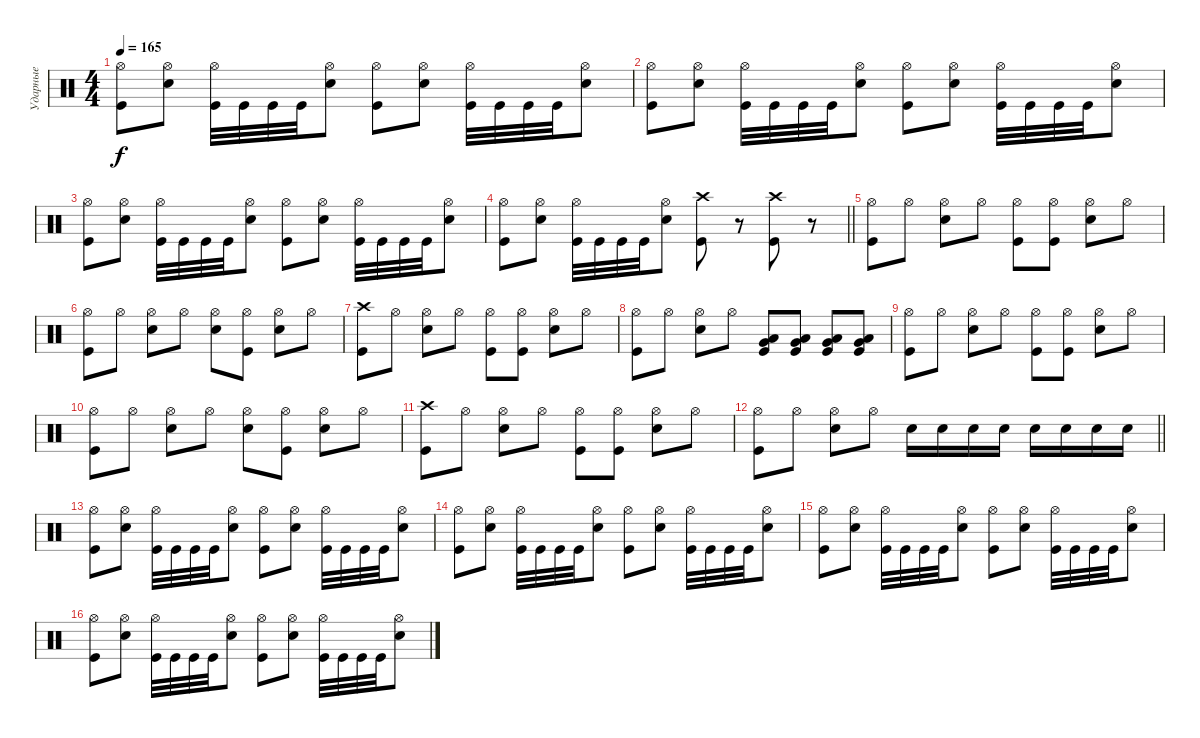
\track ("Ударные" "Ударные") {instrument percussion}
\staff {score}
\articulation defaults
\ts (4 4)
\tempo 165
\clef neutral
\ks c
("Hi-Hat (open)" "Kick (hit)").8{dy f} ("Hi-Hat (open)" "Electric Snare (hit)").8 ("Hi-Hat (open)" "Kick (hit)").32 "Kick (hit)".32 "Kick (hit)".32 "Kick (hit)".32 ("Hi-Hat (open)" "Electric Snare (hit)").8 ("Hi-Hat (open)" "Kick (hit)").8 ("Hi-Hat (open)" "Electric Snare (hit)").8 ("Hi-Hat (open)" "Kick (hit)").32 "Kick (hit)".32 "Kick (hit)".32 "Kick (hit)".32 ("Hi-Hat (open)" "Electric Snare (hit)").8 |
("Hi-Hat (open)" "Kick (hit)").8 ("Hi-Hat (open)" "Electric Snare (hit)").8 ("Hi-Hat (open)" "Kick (hit)").32 "Kick (hit)".32 "Kick (hit)".32 "Kick (hit)".32 ("Hi-Hat (open)" "Electric Snare (hit)").8 ("Hi-Hat (open)" "Kick (hit)").8 ("Hi-Hat (open)" "Electric Snare (hit)").8 ("Hi-Hat (open)" "Kick (hit)").32 "Kick (hit)".32 "Kick (hit)".32 "Kick (hit)".32 ("Hi-Hat (open)" "Electric Snare (hit)").8 |
("Hi-Hat (open)" "Kick (hit)").8 ("Hi-Hat (open)" "Electric Snare (hit)").8 ("Hi-Hat (open)" "Kick (hit)").32 "Kick (hit)".32 "Kick (hit)".32 "Kick (hit)".32 ("Hi-Hat (open)" "Electric Snare (hit)").8 ("Hi-Hat (open)" "Kick (hit)").8 ("Hi-Hat (open)" "Electric Snare (hit)").8 ("Hi-Hat (open)" "Kick (hit)").32 "Kick (hit)".32 "Kick (hit)".32 "Kick (hit)".32 ("Hi-Hat (open)" "Electric Snare (hit)").8 |
\barLineRight lightlight
("Hi-Hat (open)" "Kick (hit)").8 ("Hi-Hat (open)" "Electric Snare (hit)").8 ("Hi-Hat (open)" "Kick (hit)").32 "Kick (hit)".32 "Kick (hit)".32 "Kick (hit)".32 ("Hi-Hat (open)" "Electric Snare (hit)").8 ("Crash high (hit)" "Kick (hit)").8 r.8 ("Crash high (hit)" "Kick (hit)").8 r.8 |
\section ("" "")
("Hi-Hat (open)" "Kick (hit)").8 "Hi-Hat (open)".8 ("Hi-Hat (open)" "Electric Snare (hit)").8 "Hi-Hat (open)".8 ("Hi-Hat (open)" "Kick (hit)").8 ("Hi-Hat (open)" "Kick (hit)").8 ("Hi-Hat (open)" "Electric Snare (hit)").8 "Hi-Hat (open)".8 |
("Hi-Hat (open)" "Kick (hit)").8 "Hi-Hat (open)".8 ("Hi-Hat (open)" "Electric Snare (hit)").8 "Hi-Hat (open)".8 ("Hi-Hat (open)" "Electric Snare (hit)").8 ("Hi-Hat (open)" "Kick (hit)").8 ("Hi-Hat (open)" "Electric Snare (hit)").8 "Hi-Hat (open)".8 |
("Crash high (hit)" "Kick (hit)").8 "Hi-Hat (open)".8 ("Hi-Hat (open)" "Electric Snare (hit)").8 "Hi-Hat (open)".8 ("Hi-Hat (open)" "Kick (hit)").8 ("Hi-Hat (open)" "Kick (hit)").8 ("Hi-Hat (open)" "Electric Snare (hit)").8 "Hi-Hat (open)".8 |
("Hi-Hat (open)" "Kick (hit)").8 "Hi-Hat (open)".8 ("Hi-Hat (open)" "Electric Snare (hit)").8 "Hi-Hat (open)".8 ("Very Low Tom (hit)" "Low Tom (hit)" "Kick (hit)").8 ("Very Low Tom (hit)" "Low Tom (hit)" "Kick (hit)").8 ("Very Low Tom (hit)" "Low Tom (hit)" "Kick (hit)").8 ("Very Low Tom (hit)" "Low Tom (hit)" "Kick (hit)").8 |
("Hi-Hat (open)" "Kick (hit)").8 "Hi-Hat (open)".8 ("Hi-Hat (open)" "Electric Snare (hit)").8 "Hi-Hat (open)".8 ("Hi-Hat (open)" "Kick (hit)").8 ("Hi-Hat (open)" "Kick (hit)").8 ("Hi-Hat (open)" "Electric Snare (hit)").8 "Hi-Hat (open)".8 |
("Hi-Hat (open)" "Kick (hit)").8 "Hi-Hat (open)".8 ("Hi-Hat (open)" "Electric Snare (hit)").8 "Hi-Hat (open)".8 ("Hi-Hat (open)" "Electric Snare (hit)").8 ("Hi-Hat (open)" "Kick (hit)").8 ("Hi-Hat (open)" "Electric Snare (hit)").8 "Hi-Hat (open)".8 |
("Crash high (hit)" "Kick (hit)").8 "Hi-Hat (open)".8 ("Hi-Hat (open)" "Electric Snare (hit)").8 "Hi-Hat (open)".8 ("Hi-Hat (open)" "Kick (hit)").8 ("Hi-Hat (open)" "Kick (hit)").8 ("Hi-Hat (open)" "Electric Snare (hit)").8 "Hi-Hat (open)".8 |
\barLineRight lightlight
("Hi-Hat (open)" "Kick (hit)").8 "Hi-Hat (open)".8 ("Hi-Hat (open)" "Electric Snare (hit)").8 "Hi-Hat (open)".8 "Electric Snare (hit)".16 "Electric Snare (hit)".16 "Electric Snare (hit)".16 "Electric Snare (hit)".16 "Electric Snare (hit)".16 "Electric Snare (hit)".16 "Electric Snare (hit)".16 "Electric Snare (hit)".16 |
\section ("" "")
("Hi-Hat (open)" "Kick (hit)").8 ("Hi-Hat (open)" "Electric Snare (hit)").8 ("Hi-Hat (open)" "Kick (hit)").32 "Kick (hit)".32 "Kick (hit)".32 "Kick (hit)".32 ("Hi-Hat (open)" "Electric Snare (hit)").8 ("Hi-Hat (open)" "Kick (hit)").8 ("Hi-Hat (open)" "Electric Snare (hit)").8 ("Hi-Hat (open)" "Kick (hit)").32 "Kick (hit)".32 "Kick (hit)".32 "Kick (hit)".32 ("Hi-Hat (open)" "Electric Snare (hit)").8 |
("Hi-Hat (open)" "Kick (hit)").8 ("Hi-Hat (open)" "Electric Snare (hit)").8 ("Hi-Hat (open)" "Kick (hit)").32 "Kick (hit)".32 "Kick (hit)".32 "Kick (hit)".32 ("Hi-Hat (open)" "Electric Snare (hit)").8 ("Hi-Hat (open)" "Kick (hit)").8 ("Hi-Hat (open)" "Electric Snare (hit)").8 ("Hi-Hat (open)" "Kick (hit)").32 "Kick (hit)".32 "Kick (hit)".32 "Kick (hit)".32 ("Hi-Hat (open)" "Electric Snare (hit)").8 |
("Hi-Hat (open)" "Kick (hit)").8 ("Hi-Hat (open)" "Electric Snare (hit)").8 ("Hi-Hat (open)" "Kick (hit)").32 "Kick (hit)".32 "Kick (hit)".32 "Kick (hit)".32 ("Hi-Hat (open)" "Electric Snare (hit)").8 ("Hi-Hat (open)" "Kick (hit)").8 ("Hi-Hat (open)" "Electric Snare (hit)").8 ("Hi-Hat (open)" "Kick (hit)").32 "Kick (hit)".32 "Kick (hit)".32 "Kick (hit)".32 ("Hi-Hat (open)" "Electric Snare (hit)").8 |
("Hi-Hat (open)" "Kick (hit)").8 ("Hi-Hat (open)" "Electric Snare (hit)").8 ("Hi-Hat (open)" "Kick (hit)").32 "Kick (hit)".32 "Kick (hit)".32 "Kick (hit)".32 ("Hi-Hat (open)" "Electric Snare (hit)").8 ("Hi-Hat (open)" "Kick (hit)").8 ("Hi-Hat (open)" "Electric Snare (hit)").8 ("Hi-Hat (open)" "Kick (hit)").32 "Kick (hit)".32 "Kick (hit)".32 "Kick (hit)".32 ("Hi-Hat (open)" "Electric Snare (hit)").8
